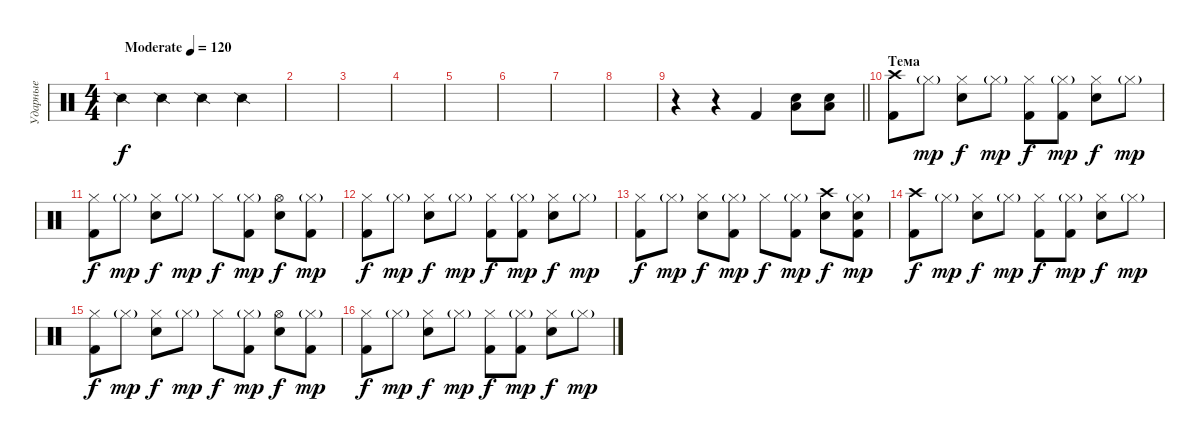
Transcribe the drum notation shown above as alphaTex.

\track ("Ударные" "Ударные") {instrument percussion}
\staff {score}
\articulation defaults
\ts (4 4)
\tempo (120 "Moderate")
\clef neutral
\ks c "Snare (side stick) 2".4{dy f} "Snare (side stick) 2".4 "Snare (side stick) 2".4 "Snare (side stick) 2".4
|
|
|
|
|
|
|
|
\barLineRight lightlight
r.4 r.4 "Kick (hit) 2".4 ("Electric Snare (hit)" "Low Floor Tom (hit)").8 ("Electric Snare (hit)" "Low Floor Tom (hit)").8 |
\section ("" "Тема")
("Crash high (hit)" "Kick (hit) 2").8 "Hi-Hat (closed)"{g}.8{dy mp} ("Hi-Hat (closed)" "Electric Snare (hit)").8{dy f} "Hi-Hat (closed)"{g}.8{dy mp} ("Hi-Hat (closed)" "Kick (hit) 2").8{dy f} ("Hi-Hat (closed)"{g} "Kick (hit) 2").8{dy mp} ("Hi-Hat (closed)" "Electric Snare (hit)").8{dy f} "Hi-Hat (closed)"{g}.8{dy mp} |
("Hi-Hat (closed)" "Kick (hit) 2").8{dy f} "Hi-Hat (closed)"{g}.8{dy mp} ("Hi-Hat (closed)" "Electric Snare (hit)").8{dy f} "Hi-Hat (closed)"{g}.8{dy mp} "Hi-Hat (closed)".8{dy f} ("Hi-Hat (closed)"{g} "Kick (hit) 2").8{dy mp} ("Hi-Hat (open)" "Electric Snare (hit)").8{dy f} ("Hi-Hat (closed)"{g} "Kick (hit) 2").8{dy mp} |
("Hi-Hat (closed)" "Kick (hit) 2").8{dy f} "Hi-Hat (closed)"{g}.8{dy mp} ("Hi-Hat (closed)" "Electric Snare (hit)").8{dy f} "Hi-Hat (closed)"{g}.8{dy mp} ("Hi-Hat (closed)" "Kick (hit) 2").8{dy f} ("Hi-Hat (closed)"{g} "Kick (hit) 2").8{dy mp} ("Hi-Hat (closed)" "Electric Snare (hit)").8{dy f} "Hi-Hat (closed)"{g}.8{dy mp} |
("Hi-Hat (closed)" "Kick (hit) 2").8{dy f} "Hi-Hat (closed)"{g}.8{dy mp} ("Hi-Hat (closed)" "Electric Snare (hit)").8{dy f} ("Hi-Hat (closed)"{g} "Kick (hit) 2").8{dy mp} "Hi-Hat (closed)".8{dy f} ("Hi-Hat (closed)"{g} "Kick (hit) 2").8{dy mp} ("Crash high (hit)" "Electric Snare (hit)").8{dy f} ("Hi-Hat (closed)"{g} "Kick (hit) 2" "Electric Snare (hit)").8{dy mp} |
("Crash high (hit)" "Kick (hit) 2").8{dy f} "Hi-Hat (closed)"{g}.8{dy mp} ("Hi-Hat (closed)" "Electric Snare (hit)").8{dy f} "Hi-Hat (closed)"{g}.8{dy mp} ("Hi-Hat (closed)" "Kick (hit) 2").8{dy f} ("Hi-Hat (closed)"{g} "Kick (hit) 2").8{dy mp} ("Hi-Hat (closed)" "Electric Snare (hit)").8{dy f} "Hi-Hat (closed)"{g}.8{dy mp} |
("Hi-Hat (closed)" "Kick (hit) 2").8{dy f} "Hi-Hat (closed)"{g}.8{dy mp} ("Hi-Hat (closed)" "Electric Snare (hit)").8{dy f} "Hi-Hat (closed)"{g}.8{dy mp} "Hi-Hat (closed)".8{dy f} ("Hi-Hat (closed)"{g} "Kick (hit) 2").8{dy mp} ("Hi-Hat (open)" "Electric Snare (hit)").8{dy f} ("Hi-Hat (closed)"{g} "Kick (hit) 2").8{dy mp} |
("Hi-Hat (closed)" "Kick (hit) 2").8{dy f} "Hi-Hat (closed)"{g}.8{dy mp} ("Hi-Hat (closed)" "Electric Snare (hit)").8{dy f} "Hi-Hat (closed)"{g}.8{dy mp} ("Hi-Hat (closed)" "Kick (hit) 2").8{dy f} ("Hi-Hat (closed)"{g} "Kick (hit) 2").8{dy mp} ("Hi-Hat (closed)" "Electric Snare (hit)").8{dy f} "Hi-Hat (closed)"{g}.8{dy mp}
